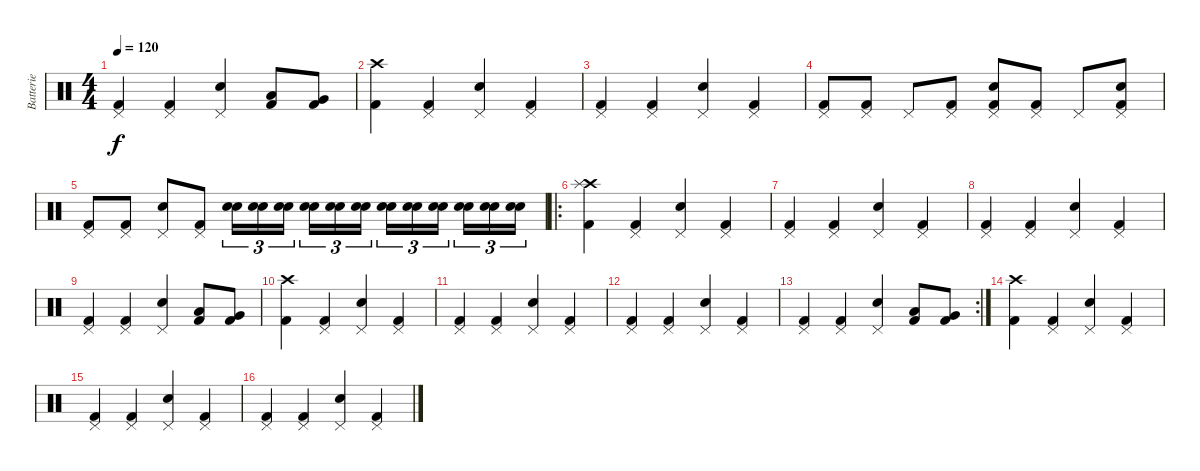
\track ("Batterie" "Batterie") {instrument percussion}
\staff {score}
\articulation defaults
\ts (4 4)
\tempo 120
\clef neutral
\ks c
("Pedal Hi-Hat (hit)" "Kick (hit) 2").4{dy f} ("Pedal Hi-Hat (hit)" "Kick (hit) 2").4 ("Pedal Hi-Hat (hit)" "Electric Snare (hit)").4 ("Low Tom (hit)" "Kick (hit) 2").8 ("Very Low Tom (hit)" "Kick (hit) 2").8 |
("Crash high (hit)" "Kick (hit) 2").4 ("Pedal Hi-Hat (hit)" "Kick (hit) 2").4 ("Pedal Hi-Hat (hit)" "Electric Snare (hit)").4 ("Pedal Hi-Hat (hit)" "Kick (hit) 2").4 |
("Pedal Hi-Hat (hit)" "Kick (hit) 2").4 ("Pedal Hi-Hat (hit)" "Kick (hit) 2").4 ("Pedal Hi-Hat (hit)" "Electric Snare (hit)").4 ("Pedal Hi-Hat (hit)" "Kick (hit) 2").4 |
("Pedal Hi-Hat (hit)" "Kick (hit) 2").8 ("Pedal Hi-Hat (hit)" "Kick (hit) 2").8 "Pedal Hi-Hat (hit)".8 ("Pedal Hi-Hat (hit)" "Kick (hit) 2").8 ("Pedal Hi-Hat (hit)" "Electric Snare (hit)" "Kick (hit) 2").8 ("Pedal Hi-Hat (hit)" "Kick (hit) 2").8 "Pedal Hi-Hat (hit)".8 ("Pedal Hi-Hat (hit)" "Electric Snare (hit)" "Kick (hit) 2").8 |
("Pedal Hi-Hat (hit)" "Kick (hit) 2").8 ("Pedal Hi-Hat (hit)" "Kick (hit) 2").8 ("Pedal Hi-Hat (hit)" "Electric Snare (hit)").8 ("Pedal Hi-Hat (hit)" "Kick (hit) 2").8 ("Electric Snare (hit)" "Snare (hit) 2").16{tu (3 2)} ("Electric Snare (hit)" "Snare (hit) 2").16{tu (3 2)} ("Electric Snare (hit)" "Snare (hit) 2").16{tu (3 2)} ("Electric Snare (hit)" "Snare (hit) 2").16{tu (3 2)} ("Electric Snare (hit)" "Snare (hit) 2").16{tu (3 2)} ("Electric Snare (hit)" "Snare (hit) 2").16{tu (3 2)} ("Electric Snare (hit)" "Snare (hit) 2").16{tu (3 2)} ("Electric Snare (hit)" "Snare (hit) 2").16{tu (3 2)} ("Electric Snare (hit)" "Snare (hit) 2").16{tu (3 2)} ("Electric Snare (hit)" "Snare (hit) 2").16{tu (3 2)} ("Electric Snare (hit)" "Snare (hit) 2").16{tu (3 2)} ("Electric Snare (hit)" "Snare (hit) 2").16{tu (3 2)} |
\ro
("Crash high (hit)" "Splash (hit)" "Kick (hit) 2").4 ("Pedal Hi-Hat (hit)" "Kick (hit) 2").4 ("Pedal Hi-Hat (hit)" "Electric Snare (hit)").4 ("Pedal Hi-Hat (hit)" "Kick (hit) 2").4 |
("Pedal Hi-Hat (hit)" "Kick (hit) 2").4 ("Pedal Hi-Hat (hit)" "Kick (hit) 2").4 ("Pedal Hi-Hat (hit)" "Electric Snare (hit)").4 ("Pedal Hi-Hat (hit)" "Kick (hit) 2").4 |
("Pedal Hi-Hat (hit)" "Kick (hit) 2").4 ("Pedal Hi-Hat (hit)" "Kick (hit) 2").4 ("Pedal Hi-Hat (hit)" "Electric Snare (hit)").4 ("Pedal Hi-Hat (hit)" "Kick (hit) 2").4 |
("Pedal Hi-Hat (hit)" "Kick (hit) 2").4 ("Pedal Hi-Hat (hit)" "Kick (hit) 2").4 ("Pedal Hi-Hat (hit)" "Electric Snare (hit)").4 ("Low Tom (hit)" "Kick (hit) 2").8 ("Very Low Tom (hit)" "Kick (hit) 2").8 |
("Crash high (hit)" "Kick (hit) 2").4 ("Pedal Hi-Hat (hit)" "Kick (hit) 2").4 ("Pedal Hi-Hat (hit)" "Electric Snare (hit)").4 ("Pedal Hi-Hat (hit)" "Kick (hit) 2").4 |
("Pedal Hi-Hat (hit)" "Kick (hit) 2").4 ("Pedal Hi-Hat (hit)" "Kick (hit) 2").4 ("Pedal Hi-Hat (hit)" "Electric Snare (hit)").4 ("Pedal Hi-Hat (hit)" "Kick (hit) 2").4 |
("Pedal Hi-Hat (hit)" "Kick (hit) 2").4 ("Pedal Hi-Hat (hit)" "Kick (hit) 2").4 ("Pedal Hi-Hat (hit)" "Electric Snare (hit)").4 ("Pedal Hi-Hat (hit)" "Kick (hit) 2").4 |
\rc 2
("Pedal Hi-Hat (hit)" "Kick (hit) 2").4 ("Pedal Hi-Hat (hit)" "Kick (hit) 2").4 ("Pedal Hi-Hat (hit)" "Electric Snare (hit)").4 ("Low Tom (hit)" "Kick (hit) 2").8 ("Very Low Tom (hit)" "Kick (hit) 2").8 |
("Crash high (hit)" "Kick (hit) 2").4 ("Pedal Hi-Hat (hit)" "Kick (hit) 2").4 ("Pedal Hi-Hat (hit)" "Electric Snare (hit)").4 ("Pedal Hi-Hat (hit)" "Kick (hit) 2").4 |
("Pedal Hi-Hat (hit)" "Kick (hit) 2").4 ("Pedal Hi-Hat (hit)" "Kick (hit) 2").4 ("Pedal Hi-Hat (hit)" "Electric Snare (hit)").4 ("Pedal Hi-Hat (hit)" "Kick (hit) 2").4 |
("Pedal Hi-Hat (hit)" "Kick (hit) 2").4 ("Pedal Hi-Hat (hit)" "Kick (hit) 2").4 ("Pedal Hi-Hat (hit)" "Electric Snare (hit)").4 ("Pedal Hi-Hat (hit)" "Kick (hit) 2").4
